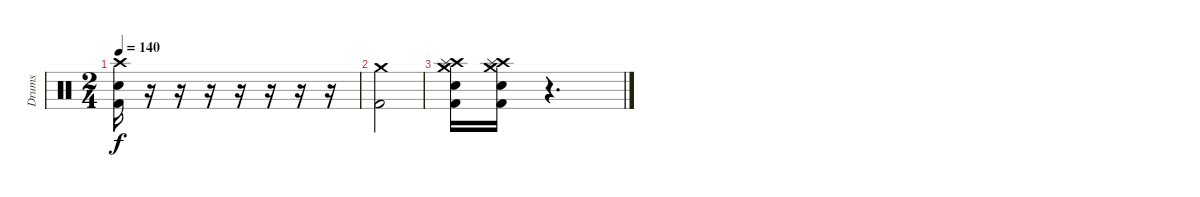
\track ("Drums" "Drums") {instrument percussion}
\staff {score}
\articulation defaults
\ts (2 4)
\tempo 140
\clef neutral
\ks c
("Crash high (hit)" "Electric Snare (hit)" "Kick (hit) 2").16{dy f} r.16 r.16 r.16 r.16 r.16 r.16 r.16 |
("Crash medium (hit)"{tr (57 32)} "Kick (hit) 2").2 |
("Crash high (hit)" "Electric Snare (hit)" "Crash medium (hit)" "Splash (hit)" "Kick (hit) 2").16 ("Crash high (hit)" "Electric Snare (hit)" "Crash medium (hit)" "Splash (hit)" "Kick (hit) 2").16 r.4{d}
